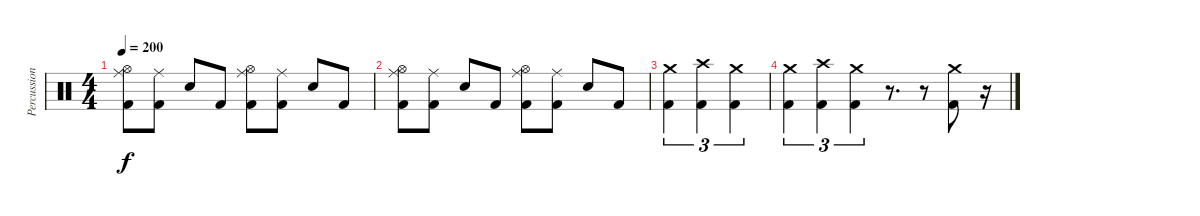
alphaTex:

\track ("Percussion" "Percussion") {instrument percussion}
\staff {score}
\articulation defaults
\ts (4 4)
\tempo 200
\clef neutral
\ks c
("Ride (middle)" "Hi-Hat (open)" "Kick (hit) 2").8{dy f} ("Ride (middle)" "Kick (hit) 2").8 "Snare (hit) 2".8 "Kick (hit) 2".8 ("Ride (middle)" "Hi-Hat (open)" "Kick (hit) 2").8 ("Ride (middle)" "Kick (hit) 2").8 "Snare (hit) 2".8 "Kick (hit) 2".8 |
("Ride (middle)" "Hi-Hat (open)" "Kick (hit) 2").8 ("Ride (middle)" "Kick (hit) 2").8 "Snare (hit) 2".8 "Kick (hit) 2".8 ("Ride (middle)" "Hi-Hat (open)" "Kick (hit) 2").8 ("Ride (middle)" "Kick (hit) 2").8 "Snare (hit) 2".8 "Kick (hit) 2".8 |
("Crash medium (hit)" "Kick (hit) 2").4{tu (3 2)} ("Crash high (hit)" "Kick (hit) 2").4{tu (3 2)} ("Crash medium (hit)" "Kick (hit) 2").4{tu (3 2)} |
("Crash medium (hit)" "Kick (hit) 2").4{tu (3 2)} ("Crash high (hit)" "Kick (hit) 2").4{tu (3 2)} ("Crash medium (hit)" "Kick (hit) 2").4{tu (3 2)} r.8{d} r.8 ("Crash medium (hit)" "Kick (hit) 2").8 r.16
